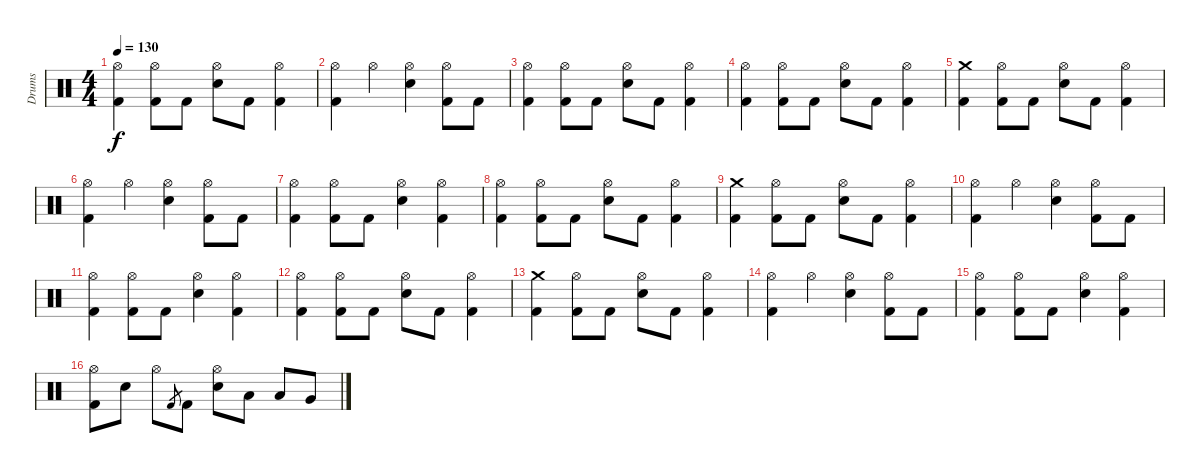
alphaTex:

\track ("Drums" "Drums") {instrument percussion}
\staff {score}
\articulation defaults
\ts (4 4)
\tempo 130
\clef neutral
\ks c
("Hi-Hat (open)" "Kick (hit) 2").4{dy f} ("Hi-Hat (open)" "Kick (hit) 2").8 "Kick (hit) 2".8 ("Hi-Hat (open)" "Electric Snare (hit)").8 "Kick (hit) 2".8 ("Hi-Hat (open)" "Kick (hit) 2").4 |
("Hi-Hat (open)" "Kick (hit) 2").4 "Hi-Hat (open)".4 ("Hi-Hat (open)" "Electric Snare (hit)").4 ("Hi-Hat (open)" "Kick (hit) 2").8 "Kick (hit) 2".8 |
("Hi-Hat (open)" "Kick (hit) 2").4 ("Hi-Hat (open)" "Kick (hit) 2").8 "Kick (hit) 2".8 ("Hi-Hat (open)" "Electric Snare (hit)").8 "Kick (hit) 2".8 ("Hi-Hat (open)" "Kick (hit) 2").4 |
("Hi-Hat (open)" "Kick (hit) 2").4 ("Hi-Hat (open)" "Kick (hit) 2").8 "Kick (hit) 2".8 ("Hi-Hat (open)" "Electric Snare (hit)").8 "Kick (hit) 2".8 ("Hi-Hat (open)" "Kick (hit) 2").4 |
("Crash medium (hit)" "Kick (hit) 2").4 ("Hi-Hat (open)" "Kick (hit) 2").8 "Kick (hit) 2".8 ("Hi-Hat (open)" "Electric Snare (hit)").8 "Kick (hit) 2".8 ("Hi-Hat (open)" "Kick (hit) 2").4 |
("Hi-Hat (open)" "Kick (hit) 2").4 "Hi-Hat (open)".4 ("Hi-Hat (open)" "Electric Snare (hit)").4 ("Hi-Hat (open)" "Kick (hit) 2").8 "Kick (hit) 2".8 |
("Hi-Hat (open)" "Kick (hit) 2").4 ("Hi-Hat (open)" "Kick (hit) 2").8 "Kick (hit) 2".8 ("Hi-Hat (open)" "Electric Snare (hit)").4 ("Hi-Hat (open)" "Kick (hit) 2").4 |
("Hi-Hat (open)" "Kick (hit) 2").4 ("Hi-Hat (open)" "Kick (hit) 2").8 "Kick (hit) 2".8 ("Hi-Hat (open)" "Electric Snare (hit)").8 "Kick (hit) 2".8 ("Hi-Hat (open)" "Kick (hit) 2").4 |
("Crash medium (hit)" "Kick (hit) 2").4 ("Hi-Hat (open)" "Kick (hit) 2").8 "Kick (hit) 2".8 ("Hi-Hat (open)" "Electric Snare (hit)").8 "Kick (hit) 2".8 ("Hi-Hat (open)" "Kick (hit) 2").4 |
("Hi-Hat (open)" "Kick (hit) 2").4 "Hi-Hat (open)".4 ("Hi-Hat (open)" "Electric Snare (hit)").4 ("Hi-Hat (open)" "Kick (hit) 2").8 "Kick (hit) 2".8 |
("Hi-Hat (open)" "Kick (hit) 2").4 ("Hi-Hat (open)" "Kick (hit) 2").8 "Kick (hit) 2".8 ("Hi-Hat (open)" "Electric Snare (hit)").4 ("Hi-Hat (open)" "Kick (hit) 2").4 |
("Hi-Hat (open)" "Kick (hit) 2").4 ("Hi-Hat (open)" "Kick (hit) 2").8 "Kick (hit) 2".8 ("Hi-Hat (open)" "Electric Snare (hit)").8 "Kick (hit) 2".8 ("Hi-Hat (open)" "Kick (hit) 2").4 |
("Crash medium (hit)" "Kick (hit) 2").4 ("Hi-Hat (open)" "Kick (hit) 2").8 "Kick (hit) 2".8 ("Hi-Hat (open)" "Electric Snare (hit)").8 "Kick (hit) 2".8 ("Hi-Hat (open)" "Kick (hit) 2").4 |
("Hi-Hat (open)" "Kick (hit) 2").4 "Hi-Hat (open)".4 ("Hi-Hat (open)" "Electric Snare (hit)").4 ("Hi-Hat (open)" "Kick (hit) 2").8 "Kick (hit) 2".8 |
("Hi-Hat (open)" "Kick (hit) 2").4 ("Hi-Hat (open)" "Kick (hit) 2").8 "Kick (hit) 2".8 ("Hi-Hat (open)" "Electric Snare (hit)").4 ("Hi-Hat (open)" "Kick (hit) 2").4 |
("Hi-Hat (open)" "Kick (hit) 2").8 "Electric Snare (hit)".8 "Hi-Hat (open)".8 "Kick (hit) 2".8{gr} "Kick (hit) 2".8 ("Hi-Hat (open)" "Electric Snare (hit)").8 "Low Tom (hit)".8 "Low Tom (hit)".8 "Very Low Tom (hit)".8
